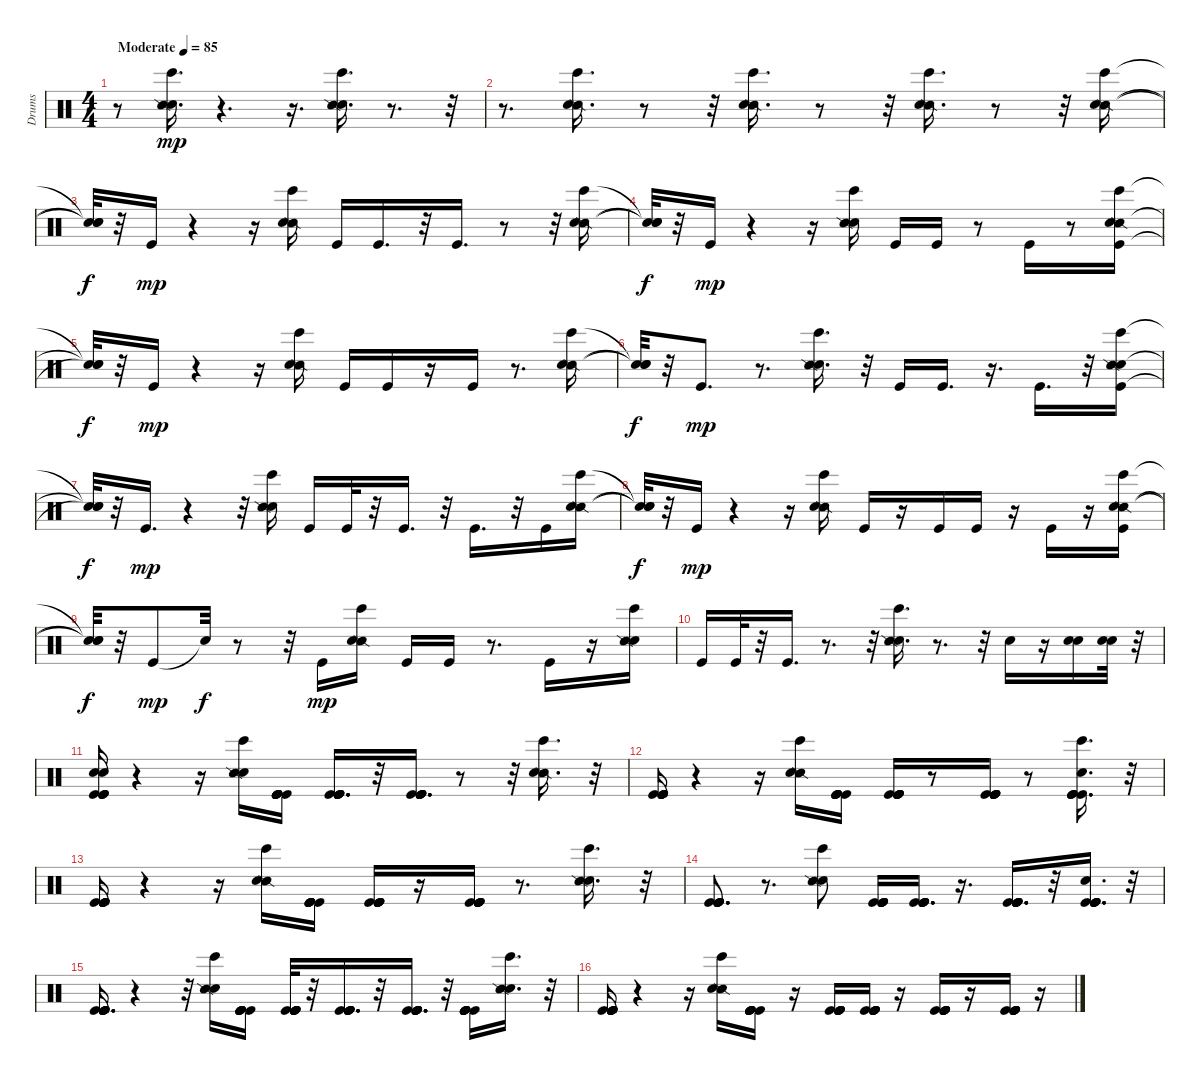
\track ("Drums" "Drums") {instrument percussion}
\staff {score}
\articulation defaults
\ts (4 4)
\tempo (85 "Moderate")
\clef neutral
\ks c
r.8{dy mp} ("Bongo High (hit)" "Electric Snare (hit)" "Snare (side stick) 2").16{d} r.4{d} r.16{d} ("Electric Snare (hit)" "Bongo High (hit)" "Snare (side stick) 2").16{d} r.8{d} r.32 |
r.8{d} ("Snare (side stick) 2" "Electric Snare (hit)" "Bongo High (hit)").16{d} r.8 r.32 ("Snare (side stick) 2" "Electric Snare (hit)" "Bongo High (hit)").16{d} r.8 r.32 ("Snare (side stick) 2" "Electric Snare (hit)" "Bongo High (hit)").16{d} r.8 r.32 ("Bongo High (hit)" "Snare (side stick) 2" "Electric Snare (hit)").16 |
("Snare (hit)"{t} "Snare (hit)"{t} "Snare (hit)"{t}).32{dy f} r.32 "Kick (hit)".16{dy mp} r.4 r.16 ("Snare (side stick) 2" "Electric Snare (hit)" "Bongo High (hit)").16 "Kick (hit)".16 "Kick (hit)".16{d} r.32 "Kick (hit)".16{d} r.8 r.32 ("Snare (side stick) 2" "Bongo High (hit)" "Electric Snare (hit)").16 |
("Snare (hit)"{t} "Snare (hit)"{t} "Snare (hit)"{t}).32{dy f} r.32 "Kick (hit)".16{dy mp} r.4 r.16 ("Bongo High (hit)" "Electric Snare (hit)" "Snare (side stick) 2").16 "Kick (hit)".16 "Kick (hit)".16 r.8 "Kick (hit)".16 r.8 ("Kick (hit)" "Bongo High (hit)" "Snare (side stick) 2" "Electric Snare (hit)").16 |
("Snare (hit)"{t} "Snare (hit)"{t} "Snare (hit)"{t}).32{dy f} r.32 "Kick (hit)".16{dy mp} r.4 r.16 ("Bongo High (hit)" "Snare (side stick) 2" "Electric Snare (hit)").16 "Kick (hit)".16 "Kick (hit)".16 r.16 "Kick (hit)".16 r.8{d} ("Bongo High (hit)" "Snare (side stick) 2" "Electric Snare (hit)").16 |
("Snare (hit)"{t} "Snare (hit)"{t} "Snare (hit)"{t}).32{dy f} r.32 "Kick (hit)".8{d dy mp} r.8{d} ("Electric Snare (hit)" "Snare (side stick) 2" "Bongo High (hit)").16{d} r.32 "Kick (hit)".16 "Kick (hit)".16{d} r.16{d} "Kick (hit)".16{d} r.32 ("Electric Snare (hit)" "Bongo High (hit)" "Kick (hit)" "Snare (side stick) 2").16 |
("Snare (hit)"{t} "Snare (hit)"{t} "Snare (hit)"{t}).32{dy f} r.32 "Kick (hit)".16{d dy mp} r.4 r.32 ("Bongo High (hit)" "Electric Snare (hit)" "Snare (side stick) 2").16 "Kick (hit)".16 "Kick (hit)".32 r.32 "Kick (hit)".16{d} r.32 "Kick (hit)".16{d} r.32 "Kick (hit)".16 ("Bongo High (hit)" "Snare (side stick) 2" "Electric Snare (hit)").16 |
("Snare (hit)"{t} "Snare (hit)"{t} "Snare (hit)"{t}).32{dy f} r.32 "Kick (hit)".16{dy mp} r.4 r.16 ("Bongo High (hit)" "Snare (side stick) 2" "Electric Snare (hit)").16 "Kick (hit)".16 r.16 "Kick (hit)".16 "Kick (hit)".16 r.16 "Kick (hit)".16 r.16 ("Snare (side stick) 2" "Bongo High (hit)" "Electric Snare (hit)" "Kick (hit)").16 |
("Snare (hit)"{t} "Snare (hit)"{t} "Snare (hit)"{t}).32{dy f} r.32 "Kick (hit)".8{dy mp} "Snare (hit)"{t}.32{dy f} r.8 r.32 "Kick (hit)".16{dy mp} ("Bongo High (hit)" "Snare (side stick) 2" "Electric Snare (hit)").16 "Kick (hit)".16 "Kick (hit)".16 r.8{d} "Kick (hit)".16 r.16 ("Electric Snare (hit)" "Bongo High (hit)" "Snare (side stick) 2").16 |
"Kick (hit)".16 "Kick (hit)".32 r.32 "Kick (hit)".16{d} r.8{d} r.32 ("Bongo High (hit)" "Electric Snare (hit)" "Snare (side stick) 2").16{d} r.8{d} r.32 "Electric Snare (hit)".16 r.16 ("Electric Snare (hit)" "Electric Snare (hit)").16 ("Electric Snare (hit)" "Electric Snare (hit)").32 r.32 |
("Electric Snare (hit)" "Kick (hit)" "Kick (hit)" "Kick (hit)" "Kick (hit)" "Electric Snare (hit)").16 r.4 r.16 ("Electric Snare (hit)" "Snare (side stick) 2" "Bongo High (hit)").16 ("Kick (hit)" "Kick (hit)" "Kick (hit)" "Kick (hit)" "Kick (hit)" "Kick (hit)").16 ("Kick (hit)" "Kick (hit)" "Kick (hit)" "Kick (hit)" "Kick (hit)" "Kick (hit)").16{d} r.32 ("Kick (hit)" "Kick (hit)" "Kick (hit)" "Kick (hit)" "Kick (hit)" "Kick (hit)").16{d} r.8 r.32 ("Bongo High (hit)" "Snare (side stick) 2" "Electric Snare (hit)").16{d} r.32 |
("Kick (hit)" "Kick (hit)" "Kick (hit)" "Kick (hit)" "Kick (hit)" "Kick (hit)").16 r.4 r.16 ("Bongo High (hit)" "Snare (side stick) 2" "Electric Snare (hit)").16 ("Kick (hit)" "Kick (hit)" "Kick (hit)" "Kick (hit)" "Kick (hit)" "Kick (hit)").16 ("Kick (hit)" "Kick (hit)" "Kick (hit)" "Kick (hit)" "Kick (hit)" "Kick (hit)").16 r.8 ("Kick (hit)" "Kick (hit)" "Kick (hit)" "Kick (hit)" "Kick (hit)" "Kick (hit)").16 r.8 ("Kick (hit)" "Bongo High (hit)" "Electric Snare (hit)" "Kick (hit)" "Kick (hit)" "Kick (hit)").16{d} r.32 |
("Kick (hit)" "Kick (hit)" "Kick (hit)" "Kick (hit)" "Kick (hit)" "Kick (hit)").16 r.4 r.16 ("Snare (side stick) 2" "Bongo High (hit)" "Electric Snare (hit)").16 ("Kick (hit)" "Kick (hit)" "Kick (hit)" "Kick (hit)" "Kick (hit)" "Kick (hit)").16 ("Kick (hit)" "Kick (hit)" "Kick (hit)" "Kick (hit)" "Kick (hit)" "Kick (hit)").16 r.16 ("Kick (hit)" "Kick (hit)" "Kick (hit)" "Kick (hit)" "Kick (hit)" "Kick (hit)").16 r.8{d} ("Bongo High (hit)" "Electric Snare (hit)" "Snare (side stick) 2").16{d} r.32 |
("Kick (hit)" "Kick (hit)" "Kick (hit)" "Kick (hit)" "Kick (hit)" "Kick (hit)").8{d} r.8{d} ("Electric Snare (hit)" "Bongo High (hit)" "Snare (side stick) 2").8 ("Kick (hit)" "Kick (hit)" "Kick (hit)" "Kick (hit)" "Kick (hit)" "Kick (hit)").16 ("Kick (hit)" "Kick (hit)" "Kick (hit)" "Kick (hit)" "Kick (hit)" "Kick (hit)").16{d} r.16{d} ("Kick (hit)" "Kick (hit)" "Kick (hit)" "Kick (hit)" "Kick (hit)" "Kick (hit)").16{d} r.32 ("Electric Snare (hit)" "Kick (hit)" "Kick (hit)" "Kick (hit)" "Kick (hit)" "Kick (hit)").16{d} r.32 |
("Kick (hit)" "Kick (hit)" "Kick (hit)" "Kick (hit)" "Kick (hit)" "Kick (hit)").16{d} r.4 r.32 ("Bongo High (hit)" "Electric Snare (hit)" "Snare (side stick) 2").16 ("Kick (hit)" "Kick (hit)" "Kick (hit)" "Kick (hit)" "Kick (hit)" "Kick (hit)").16 ("Kick (hit)" "Kick (hit)" "Kick (hit)" "Kick (hit)" "Kick (hit)" "Kick (hit)").32 r.32 ("Kick (hit)" "Kick (hit)" "Kick (hit)" "Kick (hit)" "Kick (hit)" "Kick (hit)").16{d} r.32 ("Kick (hit)" "Kick (hit)" "Kick (hit)" "Kick (hit)" "Kick (hit)" "Kick (hit)").16{d} r.32 ("Kick (hit)" "Kick (hit)" "Kick (hit)" "Kick (hit)" "Kick (hit)" "Kick (hit)").16 ("Bongo High (hit)" "Electric Snare (hit)" "Snare (side stick) 2").16{d} r.32 |
("Kick (hit)" "Kick (hit)" "Kick (hit)" "Kick (hit)" "Kick (hit)" "Kick (hit)").16 r.4 r.16 ("Snare (side stick) 2" "Bongo High (hit)" "Electric Snare (hit)").16 ("Kick (hit)" "Kick (hit)" "Kick (hit)" "Kick (hit)" "Kick (hit)" "Kick (hit)").16 r.16 ("Kick (hit)" "Kick (hit)" "Kick (hit)" "Kick (hit)" "Kick (hit)" "Kick (hit)").16 ("Kick (hit)" "Kick (hit)" "Kick (hit)" "Kick (hit)" "Kick (hit)" "Kick (hit)").16 r.16 ("Kick (hit)" "Kick (hit)" "Kick (hit)" "Kick (hit)" "Kick (hit)" "Kick (hit)").16 r.16 ("Kick (hit)" "Kick (hit)" "Kick (hit)" "Kick (hit)" "Kick (hit)" "Kick (hit)").16 r.16
